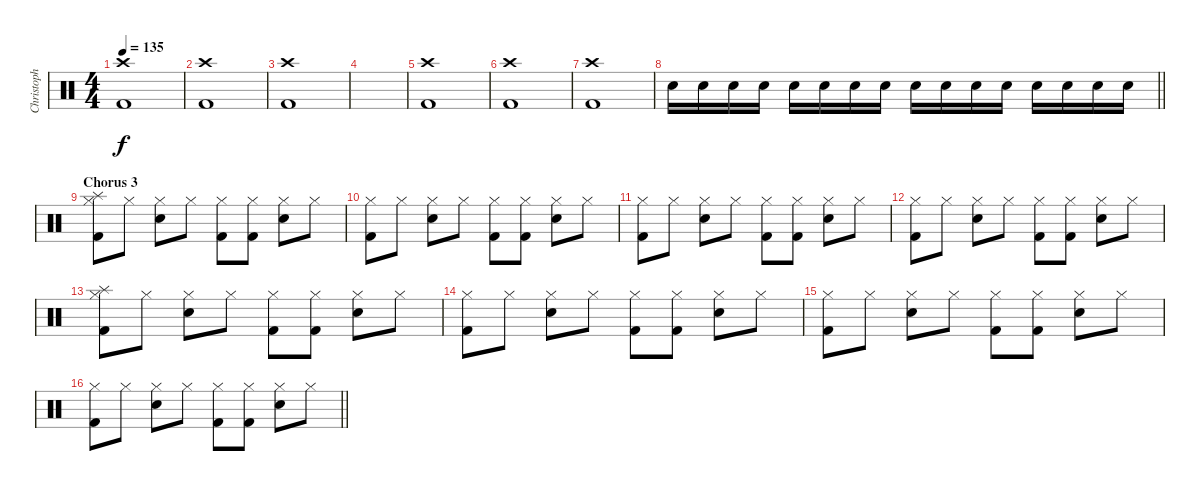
\track ("Christoph Schneider" "Christoph ") {instrument percussion}
\staff {score}
\articulation defaults
\ts (4 4)
\tempo 135
\clef neutral
\ks c
("Crash high (hit)" "Kick (hit) 2").1{dy f} |
("Crash high (hit)" "Kick (hit) 2").1 |
("Crash high (hit)" "Kick (hit) 2").1 |
|
("Crash high (hit)" "Kick (hit) 2").1 |
("Crash high (hit)" "Kick (hit) 2").1 |
("Crash high (hit)" "Kick (hit) 2").1 |
\barLineRight lightlight "Electric Snare (hit)".16 "Electric Snare (hit)".16 "Electric Snare (hit)".16 "Electric Snare (hit)".16 "Electric Snare (hit)".16 "Electric Snare (hit)".16 "Electric Snare (hit)".16 "Electric Snare (hit)".16 "Electric Snare (hit)".16 "Electric Snare (hit)".16 "Electric Snare (hit)".16 "Electric Snare (hit)".16 "Electric Snare (hit)".16 "Electric Snare (hit)".16 "Electric Snare (hit)".16 "Electric Snare (hit)".16
|
\section ("" "Chorus 3")
("Splash (hit)" "Hi-Hat (closed)" "Kick (hit) 2").8 "Hi-Hat (closed)".8 ("Hi-Hat (closed)" "Electric Snare (hit)").8 "Hi-Hat (closed)".8 ("Hi-Hat (closed)" "Kick (hit) 2").8 ("Hi-Hat (closed)" "Kick (hit) 2").8 ("Hi-Hat (closed)" "Electric Snare (hit)").8 "Hi-Hat (closed)".8 |
("Hi-Hat (closed)" "Kick (hit) 2").8 "Hi-Hat (closed)".8 ("Hi-Hat (closed)" "Electric Snare (hit)").8 "Hi-Hat (closed)".8 ("Hi-Hat (closed)" "Kick (hit) 2").8 ("Hi-Hat (closed)" "Kick (hit) 2").8 ("Hi-Hat (closed)" "Electric Snare (hit)").8 "Hi-Hat (closed)".8 |
("Hi-Hat (closed)" "Kick (hit) 2").8 "Hi-Hat (closed)".8 ("Hi-Hat (closed)" "Electric Snare (hit)").8 "Hi-Hat (closed)".8 ("Hi-Hat (closed)" "Kick (hit) 2").8 ("Hi-Hat (closed)" "Kick (hit) 2").8 ("Hi-Hat (closed)" "Electric Snare (hit)").8 "Hi-Hat (closed)".8 |
("Hi-Hat (closed)" "Kick (hit) 2").8 "Hi-Hat (closed)".8 ("Hi-Hat (closed)" "Electric Snare (hit)").8 "Hi-Hat (closed)".8 ("Hi-Hat (closed)" "Kick (hit) 2").8 ("Hi-Hat (closed)" "Kick (hit) 2").8 ("Hi-Hat (closed)" "Electric Snare (hit)").8 "Hi-Hat (closed)".8 |
("Splash (hit)" "Hi-Hat (closed)" "Kick (hit) 2").8 "Hi-Hat (closed)".8 ("Hi-Hat (closed)" "Electric Snare (hit)").8 "Hi-Hat (closed)".8 ("Hi-Hat (closed)" "Kick (hit) 2").8 ("Hi-Hat (closed)" "Kick (hit) 2").8 ("Hi-Hat (closed)" "Electric Snare (hit)").8 "Hi-Hat (closed)".8 |
("Hi-Hat (closed)" "Kick (hit) 2").8 "Hi-Hat (closed)".8 ("Hi-Hat (closed)" "Electric Snare (hit)").8 "Hi-Hat (closed)".8 ("Hi-Hat (closed)" "Kick (hit) 2").8 ("Hi-Hat (closed)" "Kick (hit) 2").8 ("Hi-Hat (closed)" "Electric Snare (hit)").8 "Hi-Hat (closed)".8 |
("Hi-Hat (closed)" "Kick (hit) 2").8 "Hi-Hat (closed)".8 ("Hi-Hat (closed)" "Electric Snare (hit)").8 "Hi-Hat (closed)".8 ("Hi-Hat (closed)" "Kick (hit) 2").8 ("Hi-Hat (closed)" "Kick (hit) 2").8 ("Hi-Hat (closed)" "Electric Snare (hit)").8 "Hi-Hat (closed)".8 |
\barLineRight lightlight
("Hi-Hat (closed)" "Kick (hit) 2").8 "Hi-Hat (closed)".8 ("Hi-Hat (closed)" "Electric Snare (hit)").8 "Hi-Hat (closed)".8 ("Hi-Hat (closed)" "Kick (hit) 2").8 ("Hi-Hat (closed)" "Kick (hit) 2").8 ("Hi-Hat (closed)" "Electric Snare (hit)").8 "Hi-Hat (closed)".8
